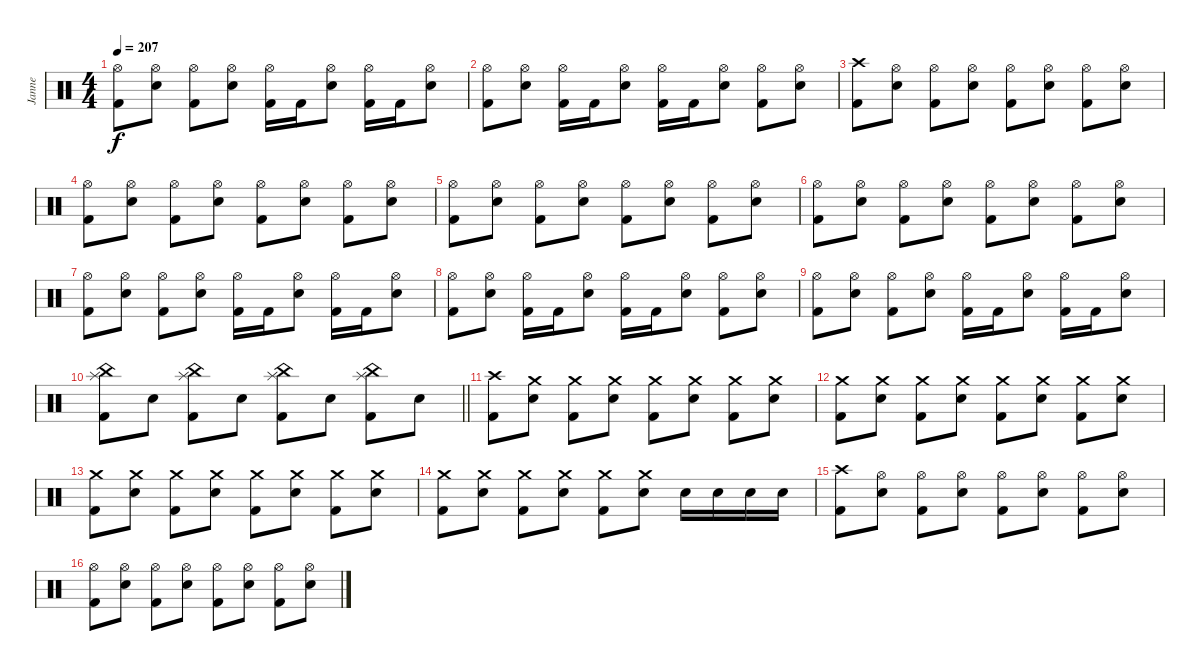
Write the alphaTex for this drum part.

\track ("Janne" "Janne") {instrument percussion}
\staff {score}
\articulation defaults
\ts (4 4)
\tempo 207
\clef neutral
\ks c
("Hi-Hat (open)" "Kick (hit) 2").8{dy f} ("Hi-Hat (open)" "Electric Snare (hit)").8 ("Hi-Hat (open)" "Kick (hit) 2").8 ("Hi-Hat (open)" "Electric Snare (hit)").8 ("Hi-Hat (open)" "Kick (hit) 2").16 "Kick (hit) 2".16 ("Hi-Hat (open)" "Electric Snare (hit)").8 ("Hi-Hat (open)" "Kick (hit) 2").16 "Kick (hit) 2".16 ("Hi-Hat (open)" "Electric Snare (hit)").8 |
("Hi-Hat (open)" "Kick (hit) 2").8 ("Hi-Hat (open)" "Electric Snare (hit)").8 ("Hi-Hat (open)" "Kick (hit) 2").16 "Kick (hit) 2".16 ("Hi-Hat (open)" "Electric Snare (hit)").8 ("Hi-Hat (open)" "Kick (hit) 2").16 "Kick (hit) 2".16 ("Hi-Hat (open)" "Electric Snare (hit)").8 ("Hi-Hat (open)" "Kick (hit) 2").8 ("Hi-Hat (open)" "Electric Snare (hit)").8 |
("Crash high (hit)" "Kick (hit) 2").8 ("Hi-Hat (open)" "Electric Snare (hit)").8 ("Hi-Hat (open)" "Kick (hit) 2").8 ("Hi-Hat (open)" "Electric Snare (hit)").8 ("Hi-Hat (open)" "Kick (hit) 2").8 ("Hi-Hat (open)" "Electric Snare (hit)").8 ("Hi-Hat (open)" "Kick (hit) 2").8 ("Hi-Hat (open)" "Electric Snare (hit)").8 |
("Hi-Hat (open)" "Kick (hit) 2").8 ("Hi-Hat (open)" "Electric Snare (hit)").8 ("Hi-Hat (open)" "Kick (hit) 2").8 ("Hi-Hat (open)" "Electric Snare (hit)").8 ("Hi-Hat (open)" "Kick (hit) 2").8 ("Hi-Hat (open)" "Electric Snare (hit)").8 ("Hi-Hat (open)" "Kick (hit) 2").8 ("Hi-Hat (open)" "Electric Snare (hit)").8 |
("Hi-Hat (open)" "Kick (hit) 2").8 ("Hi-Hat (open)" "Electric Snare (hit)").8 ("Hi-Hat (open)" "Kick (hit) 2").8 ("Hi-Hat (open)" "Electric Snare (hit)").8 ("Hi-Hat (open)" "Kick (hit) 2").8 ("Hi-Hat (open)" "Electric Snare (hit)").8 ("Hi-Hat (open)" "Kick (hit) 2").8 ("Hi-Hat (open)" "Electric Snare (hit)").8 |
("Hi-Hat (open)" "Kick (hit) 2").8 ("Hi-Hat (open)" "Electric Snare (hit)").8 ("Hi-Hat (open)" "Kick (hit) 2").8 ("Hi-Hat (open)" "Electric Snare (hit)").8 ("Hi-Hat (open)" "Kick (hit) 2").8 ("Hi-Hat (open)" "Electric Snare (hit)").8 ("Hi-Hat (open)" "Kick (hit) 2").8 ("Hi-Hat (open)" "Electric Snare (hit)").8 |
("Hi-Hat (open)" "Kick (hit) 2").8 ("Hi-Hat (open)" "Electric Snare (hit)").8 ("Hi-Hat (open)" "Kick (hit) 2").8 ("Hi-Hat (open)" "Electric Snare (hit)").8 ("Hi-Hat (open)" "Kick (hit) 2").16 "Kick (hit) 2".16 ("Hi-Hat (open)" "Electric Snare (hit)").8 ("Hi-Hat (open)" "Kick (hit) 2").16 "Kick (hit) 2".16 ("Hi-Hat (open)" "Electric Snare (hit)").8 |
("Hi-Hat (open)" "Kick (hit) 2").8 ("Hi-Hat (open)" "Electric Snare (hit)").8 ("Hi-Hat (open)" "Kick (hit) 2").16 "Kick (hit) 2".16 ("Hi-Hat (open)" "Electric Snare (hit)").8 ("Hi-Hat (open)" "Kick (hit) 2").16 "Kick (hit) 2".16 ("Hi-Hat (open)" "Electric Snare (hit)").8 ("Hi-Hat (open)" "Kick (hit) 2").8 ("Hi-Hat (open)" "Electric Snare (hit)").8 |
("Hi-Hat (open)" "Kick (hit) 2").8 ("Hi-Hat (open)" "Electric Snare (hit)").8 ("Hi-Hat (open)" "Kick (hit) 2").8 ("Hi-Hat (open)" "Electric Snare (hit)").8 ("Hi-Hat (open)" "Kick (hit) 2").16 "Kick (hit) 2".16 ("Hi-Hat (open)" "Electric Snare (hit)").8 ("Hi-Hat (open)" "Kick (hit) 2").16 "Kick (hit) 2".16 ("Hi-Hat (open)" "Electric Snare (hit)").8 |
\barLineRight lightlight
("Splash (hit)" "China (hit)" "Kick (hit) 2").8 "Electric Snare (hit)".8 ("Splash (hit)" "China (hit)" "Kick (hit) 2").8 "Electric Snare (hit)".8 ("Splash (hit)" "China (hit)" "Kick (hit) 2").8 "Electric Snare (hit)".8 ("Splash (hit)" "China (hit)" "Kick (hit) 2").8 "Electric Snare (hit)".8 |
\section ("" "")
("Crash high (hit)" "Kick (hit) 2").8 ("Crash medium (hit)" "Electric Snare (hit)").8 ("Crash medium (hit)" "Kick (hit) 2").8 ("Crash medium (hit)" "Electric Snare (hit)").8 ("Crash medium (hit)" "Kick (hit) 2").8 ("Crash medium (hit)" "Electric Snare (hit)").8 ("Crash medium (hit)" "Kick (hit) 2").8 ("Crash medium (hit)" "Electric Snare (hit)").8 |
("Crash medium (hit)" "Kick (hit) 2").8 ("Crash medium (hit)" "Electric Snare (hit)").8 ("Crash medium (hit)" "Kick (hit) 2").8 ("Crash medium (hit)" "Electric Snare (hit)").8 ("Crash medium (hit)" "Kick (hit) 2").8 ("Crash medium (hit)" "Electric Snare (hit)").8 ("Crash medium (hit)" "Kick (hit) 2").8 ("Crash medium (hit)" "Electric Snare (hit)").8 |
("Crash medium (hit)" "Kick (hit) 2").8 ("Crash medium (hit)" "Electric Snare (hit)").8 ("Crash medium (hit)" "Kick (hit) 2").8 ("Crash medium (hit)" "Electric Snare (hit)").8 ("Crash medium (hit)" "Kick (hit) 2").8 ("Crash medium (hit)" "Electric Snare (hit)").8 ("Crash medium (hit)" "Kick (hit) 2").8 ("Crash medium (hit)" "Electric Snare (hit)").8 |
("Crash medium (hit)" "Kick (hit) 2").8 ("Crash medium (hit)" "Electric Snare (hit)").8 ("Crash medium (hit)" "Kick (hit) 2").8 ("Crash medium (hit)" "Electric Snare (hit)").8 ("Crash medium (hit)" "Kick (hit) 2").8 ("Crash medium (hit)" "Electric Snare (hit)").8 "Electric Snare (hit)".16 "Electric Snare (hit)".16 "Electric Snare (hit)".16 "Electric Snare (hit)".16 |
("Crash high (hit)" "Kick (hit) 2").8 ("Hi-Hat (open)" "Electric Snare (hit)").8 ("Hi-Hat (open)" "Kick (hit) 2").8 ("Hi-Hat (open)" "Electric Snare (hit)").8 ("Hi-Hat (open)" "Kick (hit) 2").8 ("Hi-Hat (open)" "Electric Snare (hit)").8 ("Hi-Hat (open)" "Kick (hit) 2").8 ("Hi-Hat (open)" "Electric Snare (hit)").8 |
("Hi-Hat (open)" "Kick (hit) 2").8 ("Hi-Hat (open)" "Electric Snare (hit)").8 ("Hi-Hat (open)" "Kick (hit) 2").8 ("Hi-Hat (open)" "Electric Snare (hit)").8 ("Hi-Hat (open)" "Kick (hit) 2").8 ("Hi-Hat (open)" "Electric Snare (hit)").8 ("Hi-Hat (open)" "Kick (hit) 2").8 ("Hi-Hat (open)" "Electric Snare (hit)").8
